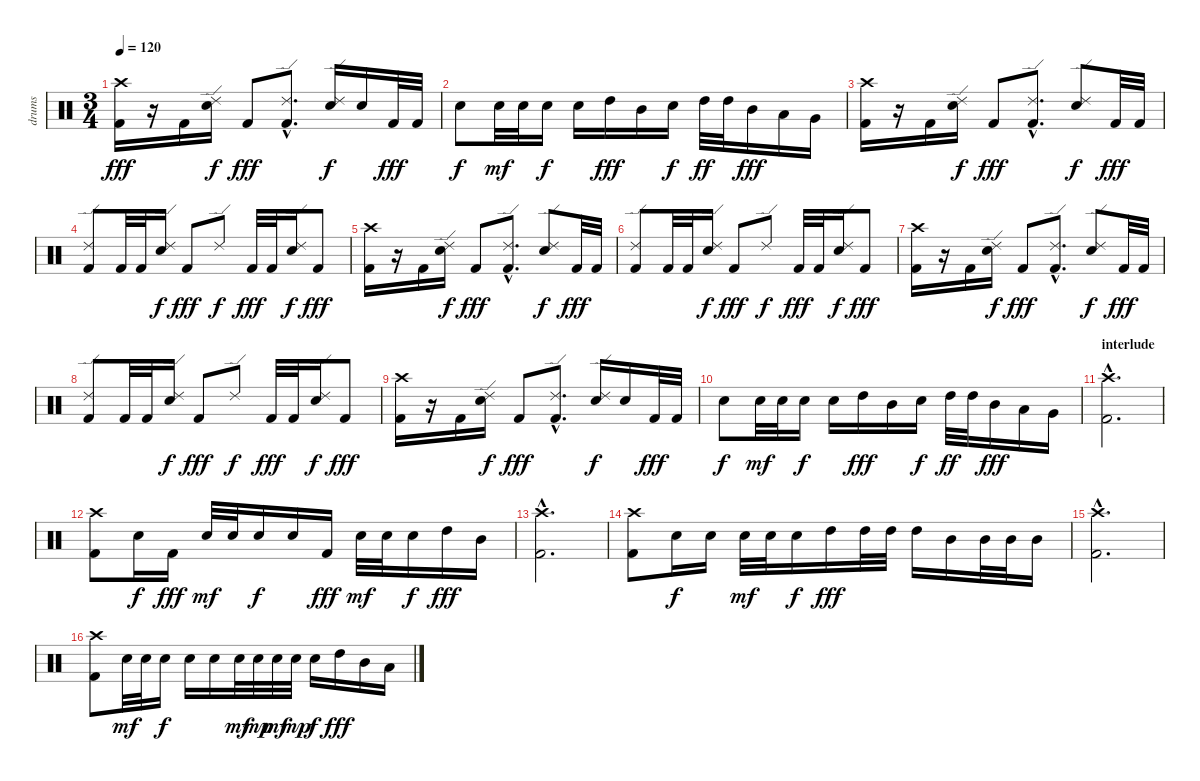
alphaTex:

\track ("drums" "drums") {instrument percussion}
\staff {score}
\articulation defaults
\ts (3 4)
\tempo 120
\clef neutral
\ks c
("Crash high (hit)" "Kick (hit) 2").16{dy fff} r.16 "Kick (hit) 2".16 ("Ride (edge) 2" "Snare (hit) 2").16{dy f} "Kick (hit) 2".8{dy fff} ("Ride (edge) 2"{hac} "Kick (hit) 2"{hac}).8{d} ("Ride (edge) 2" "Snare (hit) 2").16{dy f} "Snare (hit) 2".16 "Kick (hit) 2".32{dy fff} "Kick (hit) 2".32 |
"Snare (hit) 2".8{dy f} "Snare (hit) 2".32{dy mf} "Snare (hit) 2".32 "Snare (hit) 2".16{dy f} "Snare (hit) 2".16 "High Tom (hit)".16{dy fff} "Mid Tom (hit)".16 "Snare (hit) 2".16{dy f} "High Tom (hit)".32{dy ff} "High Tom (hit)".32 "Mid Tom (hit)".16{dy fff} "Low Tom (hit)".16 "Very Low Tom (hit)".16 |
("Crash high (hit)" "Kick (hit) 2").16 r.16 "Kick (hit) 2".16 ("Ride (edge) 2" "Snare (hit) 2").16{dy f} "Kick (hit) 2".8{dy fff} ("Ride (edge) 2"{hac} "Kick (hit) 2"{hac}).8{d} ("Ride (edge) 2" "Snare (hit) 2").8{dy f} "Kick (hit) 2".32{dy fff} "Kick (hit) 2".32 |
("Ride (edge) 2" "Kick (hit) 2").8 "Kick (hit) 2".32 "Kick (hit) 2".32 ("Ride (edge) 2" "Snare (hit) 2").16{dy f} "Kick (hit) 2".8{dy fff} "Ride (edge) 2".8{dy f} "Kick (hit) 2".32{dy fff} "Kick (hit) 2".32 ("Ride (edge) 2" "Snare (hit) 2").16{dy f} "Kick (hit) 2".8{dy fff} |
("Crash high (hit)" "Kick (hit) 2").16 r.16 "Kick (hit) 2".16 ("Ride (edge) 2" "Snare (hit) 2").16{dy f} "Kick (hit) 2".8{dy fff} ("Ride (edge) 2"{hac} "Kick (hit) 2"{hac}).8{d} ("Ride (edge) 2" "Snare (hit) 2").8{dy f} "Kick (hit) 2".32{dy fff} "Kick (hit) 2".32 |
("Ride (edge) 2" "Kick (hit) 2").8 "Kick (hit) 2".32 "Kick (hit) 2".32 ("Ride (edge) 2" "Snare (hit) 2").16{dy f} "Kick (hit) 2".8{dy fff} "Ride (edge) 2".8{dy f} "Kick (hit) 2".32{dy fff} "Kick (hit) 2".32 ("Ride (edge) 2" "Snare (hit) 2").16{dy f} "Kick (hit) 2".8{dy fff} |
("Crash high (hit)" "Kick (hit) 2").16 r.16 "Kick (hit) 2".16 ("Ride (edge) 2" "Snare (hit) 2").16{dy f} "Kick (hit) 2".8{dy fff} ("Ride (edge) 2"{hac} "Kick (hit) 2"{hac}).8{d} ("Ride (edge) 2" "Snare (hit) 2").8{dy f} "Kick (hit) 2".32{dy fff} "Kick (hit) 2".32 |
("Ride (edge) 2" "Kick (hit) 2").8 "Kick (hit) 2".32 "Kick (hit) 2".32 ("Ride (edge) 2" "Snare (hit) 2").16{dy f} "Kick (hit) 2".8{dy fff} "Ride (edge) 2".8{dy f} "Kick (hit) 2".32{dy fff} "Kick (hit) 2".32 ("Ride (edge) 2" "Snare (hit) 2").16{dy f} "Kick (hit) 2".8{dy fff} |
("Crash high (hit)" "Kick (hit) 2").16 r.16 "Kick (hit) 2".16 ("Ride (edge) 2" "Snare (hit) 2").16{dy f} "Kick (hit) 2".8{dy fff} ("Ride (edge) 2"{hac} "Kick (hit) 2"{hac}).8{d} ("Ride (edge) 2" "Snare (hit) 2").16{dy f} "Snare (hit) 2".16 "Kick (hit) 2".32{dy fff} "Kick (hit) 2".32 |
"Snare (hit) 2".8{dy f} "Snare (hit) 2".32{dy mf} "Snare (hit) 2".32 "Snare (hit) 2".16{dy f} "Snare (hit) 2".16 "High Tom (hit)".16{dy fff} "Mid Tom (hit)".16 "Snare (hit) 2".16{dy f} "High Tom (hit)".32{dy ff} "High Tom (hit)".32 "Mid Tom (hit)".16{dy fff} "Low Tom (hit)".16 "Very Low Tom (hit)".16 |
\section ("" "interlude")
("Crash high (hit)"{hac} "Kick (hit) 2"{hac}).2{d} |
("Crash high (hit)" "Kick (hit) 2").8 "Snare (hit) 2".16{dy f} "Kick (hit) 2".16{dy fff} "Snare (hit) 2".32{dy mf} "Snare (hit) 2".32 "Snare (hit) 2".16{dy f} "Snare (hit) 2".16 "Kick (hit) 2".16{dy fff} "Snare (hit) 2".32{dy mf} "Snare (hit) 2".32 "Snare (hit) 2".16{dy f} "High Tom (hit)".16{dy fff} "Mid Tom (hit)".16 |
("Crash high (hit)"{hac} "Kick (hit) 2"{hac}).2{d} |
("Crash high (hit)" "Kick (hit) 2").8 "Snare (hit) 2".16{dy f} "Snare (hit) 2".16 "Snare (hit) 2".32{dy mf} "Snare (hit) 2".32 "Snare (hit) 2".16{dy f} "High Tom (hit)".16{dy fff} "High Tom (hit)".32 "High Tom (hit)".32 "High Tom (hit)".16 "Mid Tom (hit)".16 "Mid Tom (hit)".32 "Mid Tom (hit)".32 "Mid Tom (hit)".16 |
("Crash high (hit)"{hac} "Kick (hit) 2"{hac}).2{d} |
("Crash high (hit)" "Kick (hit) 2").8 "Snare (hit) 2".32{dy mf} "Snare (hit) 2".32 "Snare (hit) 2".16{dy f} "Snare (hit) 2".16 "Snare (hit) 2".16 "Snare (hit) 2".32{dy mf} "Snare (hit) 2".32{dy mp} "Snare (hit) 2".32{dy mf} "Snare (hit) 2".32{dy mp} "Snare (hit) 2".16{dy f} "High Tom (hit)".16{dy fff} "Mid Tom (hit)".16 "Low Tom (hit)".16
